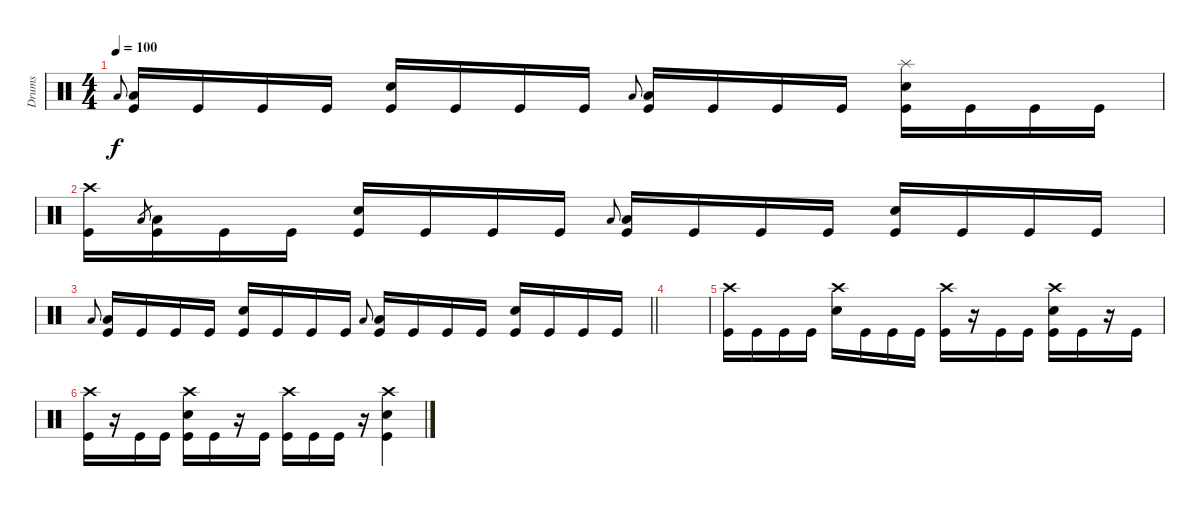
\track ("Drums" "Drums") {instrument percussion}
\staff
\articulation defaults
\ts (4 4)
\tempo 100
\clef neutral
\ks c "Low Floor Tom (hit)".8{gr onbeat dy f}
("Low Floor Tom (hit)" "Kick (hit)").16 "Kick (hit)".16 "Kick (hit)".16 "Kick (hit)".16 ("Electric Snare (hit)" "Kick (hit)").16 "Kick (hit)".16 "Kick (hit)".16 "Kick (hit)".16 "Low Floor Tom (hit)".8{gr onbeat} ("Low Floor Tom (hit)" "Kick (hit)").16 "Kick (hit)".16 "Kick (hit)".16 "Kick (hit)".16 ("Splash (hit)" "Electric Snare (hit)" "Kick (hit)").16 "Kick (hit)".16 "Kick (hit)".16 "Kick (hit)".16 |
("Crash high (hit)" "Kick (hit)").16 "Low Floor Tom (hit)".8{gr} ("Low Floor Tom (hit)" "Kick (hit)").16 "Kick (hit)".16 "Kick (hit)".16 ("Electric Snare (hit)" "Kick (hit)").16 "Kick (hit)".16 "Kick (hit)".16 "Kick (hit)".16 "Low Floor Tom (hit)".8{gr onbeat} ("Low Floor Tom (hit)" "Kick (hit)").16 "Kick (hit)".16 "Kick (hit)".16 "Kick (hit)".16 ("Electric Snare (hit)" "Kick (hit)").16 "Kick (hit)".16 "Kick (hit)".16 "Kick (hit)".16 |
\barLineRight lightlight "Low Floor Tom (hit)".8{gr onbeat}
("Low Floor Tom (hit)" "Kick (hit)").16 "Kick (hit)".16 "Kick (hit)".16 "Kick (hit)".16 ("Electric Snare (hit)" "Kick (hit)").16 "Kick (hit)".16 "Kick (hit)".16 "Kick (hit)".16 "Low Floor Tom (hit)".8{gr onbeat} ("Low Floor Tom (hit)" "Kick (hit)").16 "Kick (hit)".16 "Kick (hit)".16 "Kick (hit)".16 ("Electric Snare (hit)" "Kick (hit)").16 "Kick (hit)".16 "Kick (hit)".16 "Kick (hit)".16 |
|
("Crash high (hit)" "Kick (hit)").16 "Kick (hit)".16 "Kick (hit)".16 "Kick (hit)".16 ("Crash high (hit)" "Electric Snare (hit)").16 "Kick (hit)".16 "Kick (hit)".16 "Kick (hit)".16 ("Crash high (hit)" "Kick (hit)").16 r.16 "Kick (hit)".16 "Kick (hit)".16 ("Crash high (hit)" "Electric Snare (hit)" "Kick (hit)").16 "Kick (hit)".16 r.16 "Kick (hit)".16 |
("Crash high (hit)" "Kick (hit)").16 r.16 "Kick (hit)".16 "Kick (hit)".16 ("Crash high (hit)" "Electric Snare (hit)" "Kick (hit)").16 "Kick (hit)".16 r.16 "Kick (hit)".16 ("Crash high (hit)" "Kick (hit)").16 "Kick (hit)".16 "Kick (hit)".16 r.16 ("Crash high (hit)" "Electric Snare (hit)" "Kick (hit)").4
